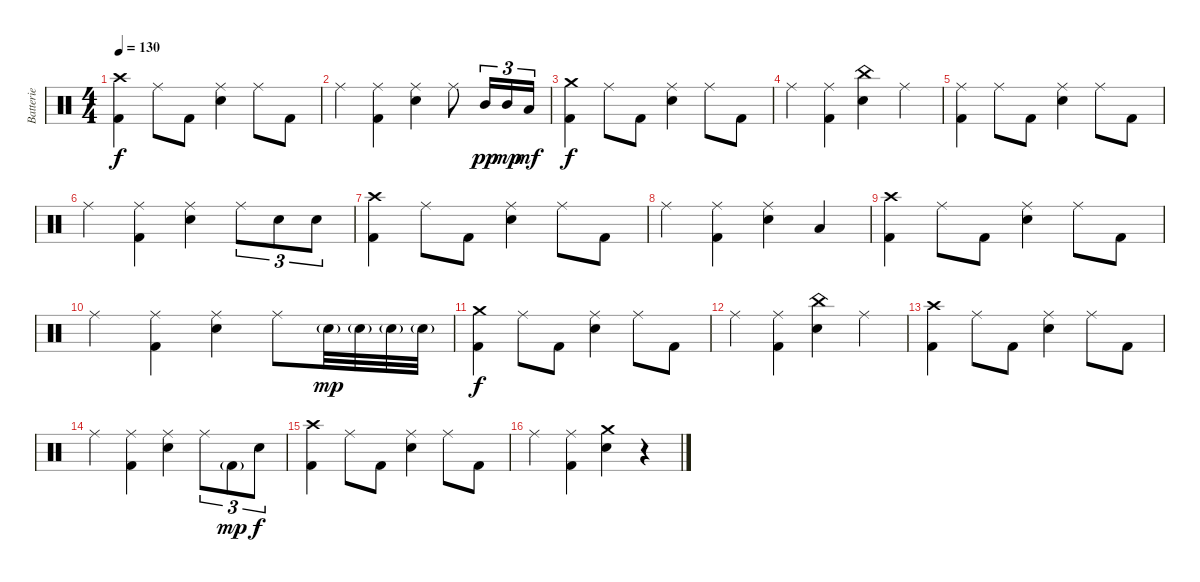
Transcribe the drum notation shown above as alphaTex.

\track ("Batterie" "Batterie") {instrument percussion}
\staff {score}
\articulation defaults
\ts (4 4)
\tempo 130
\clef neutral
\ks c
("Crash high (hit)" "Kick (hit) 2").4{dy f} "Ride (middle)".8 "Kick (hit) 2".8 ("Ride (middle)" "Electric Snare (hit)").4 "Ride (middle)".8 "Kick (hit) 2".8 |
"Ride (middle)".4 ("Ride (middle)" "Kick (hit) 2").4 ("Ride (middle)" "Electric Snare (hit)").4 "Ride (middle)".8 "Mid Tom (hit)".16{tu (3 2) dy pp} "Mid Tom (hit)".16{tu (3 2) dy mp} "Low Tom (hit)".16{tu (3 2) dy mf} |
("Crash medium (hit)" "Kick (hit) 2").4{dy f} "Ride (middle)".8 "Kick (hit) 2".8 ("Ride (middle)" "Electric Snare (hit)").4 "Ride (middle)".8 "Kick (hit) 2".8 |
"Ride (middle)".4 ("Ride (middle)" "Kick (hit) 2").4 ("China (hit)" "Electric Snare (hit)").4 "Ride (middle)".4 |
("Ride (middle)" "Kick (hit) 2").4 "Ride (middle)".8 "Kick (hit) 2".8 ("Ride (middle)" "Electric Snare (hit)").4 "Ride (middle)".8 "Kick (hit) 2".8 |
"Ride (middle)".4 ("Ride (middle)" "Kick (hit) 2").4 ("Ride (middle)" "Electric Snare (hit)").4 "Ride (middle)".8{tu (3 2)} "Electric Snare (hit)".8{tu (3 2)} "Electric Snare (hit)".8{tu (3 2)} |
("Crash high (hit)" "Kick (hit) 2").4 "Ride (middle)".8 "Kick (hit) 2".8 ("Ride (middle)" "Electric Snare (hit)").4 "Ride (middle)".8 "Kick (hit) 2".8 |
"Ride (middle)".4 ("Ride (middle)" "Kick (hit) 2").4 ("Ride (middle)" "Electric Snare (hit)").4 "Low Floor Tom (hit)".4 |
("Crash high (hit)" "Kick (hit) 2").4 "Ride (middle)".8 "Kick (hit) 2".8 ("Ride (middle)" "Electric Snare (hit)").4 "Ride (middle)".8 "Kick (hit) 2".8 |
"Ride (middle)".4 ("Ride (middle)" "Kick (hit) 2").4 ("Ride (middle)" "Electric Snare (hit)").4 "Ride (middle)".8 "Electric Snare (hit)"{g}.32{dy mp} "Electric Snare (hit)"{g}.32 "Electric Snare (hit)"{g}.32 "Electric Snare (hit)"{g}.32 |
("Crash medium (hit)" "Kick (hit) 2").4{dy f} "Ride (middle)".8 "Kick (hit) 2".8 ("Ride (middle)" "Electric Snare (hit)").4 "Ride (middle)".8 "Kick (hit) 2".8 |
"Ride (middle)".4 ("Ride (middle)" "Kick (hit) 2").4 ("China (hit)" "Electric Snare (hit)").4 "Ride (middle)".4 |
("Crash high (hit)" "Kick (hit) 2").4 "Ride (middle)".8 "Kick (hit) 2".8 ("Ride (middle)" "Electric Snare (hit)").4 "Ride (middle)".8 "Kick (hit) 2".8 |
"Ride (middle)".4 ("Ride (middle)" "Kick (hit) 2").4 ("Ride (middle)" "Electric Snare (hit)").4 "Ride (middle)".8{tu (3 2)} "Kick (hit) 2"{g}.8{tu (3 2) dy mp} "Electric Snare (hit)".8{tu (3 2) dy f} |
("Crash high (hit)" "Kick (hit) 2").4 "Ride (middle)".8 "Kick (hit) 2".8 ("Ride (middle)" "Electric Snare (hit)").4 "Ride (middle)".8 "Kick (hit) 2".8 |
"Ride (middle)".4 ("Ride (middle)" "Kick (hit) 2").4 ("Crash medium (hit)" "Electric Snare (hit)").4 r.4
